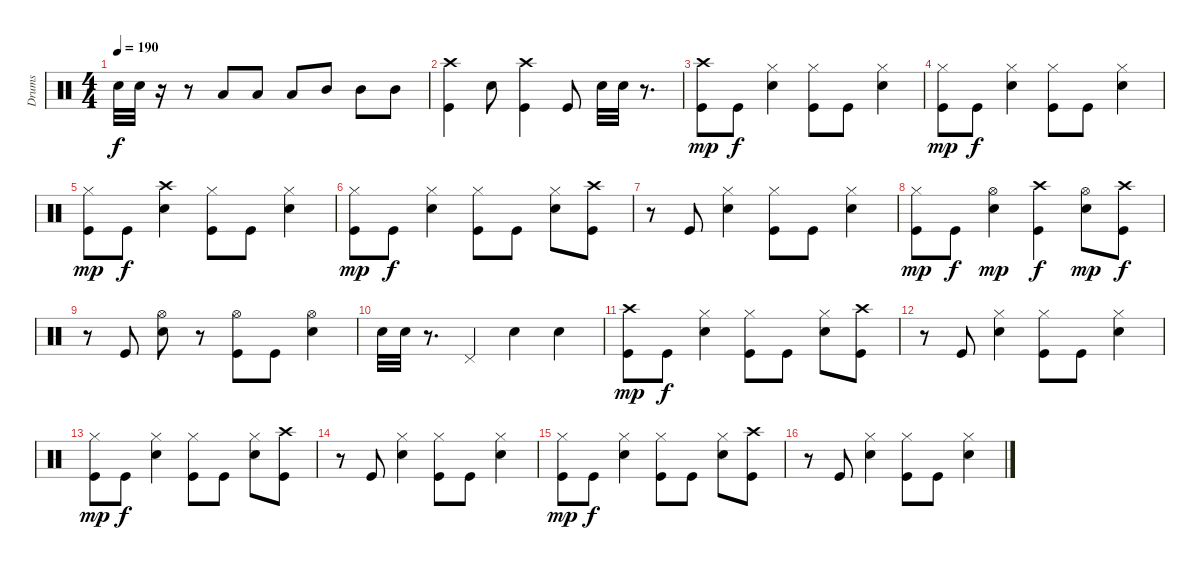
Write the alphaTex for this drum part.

\track ("Drums" "Drums") {instrument percussion}
\staff {score}
\articulation defaults
\ts (4 4)
\tempo 190
\clef neutral
\ks c "Snare (hit) 2".32{dy f} "Snare (hit) 2".32
r.16 r.8 "Low Tom (hit)".8 "Low Tom (hit)".8 "Low Tom (hit)".8 "Mid Tom (hit)".8 "Mid Tom (hit)".8 "Mid Tom (hit)".8 |
("Crash high (hit)" "Kick (hit)").4 "Snare (hit) 2".8 ("Crash high (hit)" "Kick (hit)").4 "Kick (hit)".8 "Snare (hit) 2".32 "Snare (hit) 2".32 r.8{d} |
("Crash high (hit)" "Kick (hit)").8{dy mp} "Kick (hit)".8{dy f} ("Hi-Hat (closed)" "Snare (hit) 2").4 ("Hi-Hat (closed)" "Kick (hit)").8 "Kick (hit)".8 ("Hi-Hat (closed)" "Snare (hit) 2").4 |
("Hi-Hat (closed)" "Kick (hit)").8{dy mp} "Kick (hit)".8{dy f} ("Hi-Hat (closed)" "Snare (hit) 2").4 ("Hi-Hat (closed)" "Kick (hit)").8 "Kick (hit)".8 ("Hi-Hat (closed)" "Snare (hit) 2").4 |
("Hi-Hat (closed)" "Kick (hit)").8{dy mp} "Kick (hit)".8{dy f} ("Crash high (hit)" "Snare (hit) 2").4 ("Hi-Hat (closed)" "Kick (hit)").8 "Kick (hit)".8 ("Hi-Hat (closed)" "Snare (hit) 2").4 |
("Hi-Hat (closed)" "Kick (hit)").8{dy mp} "Kick (hit)".8{dy f} ("Hi-Hat (closed)" "Snare (hit) 2").4 ("Hi-Hat (closed)" "Kick (hit)").8 "Kick (hit)".8 ("Hi-Hat (closed)" "Snare (hit) 2").8 ("Crash high (hit)" "Kick (hit)").8 |
r.8 "Kick (hit)".8 ("Hi-Hat (closed)" "Snare (hit) 2").4 ("Hi-Hat (closed)" "Kick (hit)").8 "Kick (hit)".8 ("Hi-Hat (closed)" "Snare (hit) 2").4 |
("Hi-Hat (closed)" "Kick (hit)").8{dy mp} "Kick (hit)".8{dy f} ("Hi-Hat (open)" "Snare (hit) 2").4{dy mp} ("Crash high (hit)" "Kick (hit)").4{dy f} ("Hi-Hat (open)" "Snare (hit) 2").8{dy mp} ("Crash high (hit)" "Kick (hit)").8{dy f} |
r.8 "Kick (hit)".8 ("Hi-Hat (open)" "Snare (hit) 2").8 r.8 ("Hi-Hat (open)" "Kick (hit)").8 "Kick (hit)".8 ("Hi-Hat (open)" "Snare (hit) 2").4 |
"Snare (hit) 2".32 "Snare (hit) 2".32 r.8{d} "Pedal Hi-Hat (hit)".4 "Snare (hit) 2".4 "Snare (hit) 2".4 |
("Crash high (hit)" "Kick (hit)").8{dy mp} "Kick (hit)".8{dy f} ("Hi-Hat (closed)" "Snare (hit) 2").4 ("Hi-Hat (closed)" "Kick (hit)").8 "Kick (hit)".8 ("Hi-Hat (closed)" "Snare (hit) 2").8 ("Crash high (hit)" "Kick (hit)").8 |
r.8 "Kick (hit)".8 ("Hi-Hat (closed)" "Snare (hit) 2").4 ("Hi-Hat (closed)" "Kick (hit)").8 "Kick (hit)".8 ("Hi-Hat (closed)" "Snare (hit) 2").4 |
("Hi-Hat (closed)" "Kick (hit)").8{dy mp} "Kick (hit)".8{dy f} ("Hi-Hat (closed)" "Snare (hit) 2").4 ("Hi-Hat (closed)" "Kick (hit)").8 "Kick (hit)".8 ("Hi-Hat (closed)" "Snare (hit) 2").8 ("Crash high (hit)" "Kick (hit)").8 |
r.8 "Kick (hit)".8 ("Hi-Hat (closed)" "Snare (hit) 2").4 ("Hi-Hat (closed)" "Kick (hit)").8 "Kick (hit)".8 ("Hi-Hat (closed)" "Snare (hit) 2").4 |
("Hi-Hat (closed)" "Kick (hit)").8{dy mp} "Kick (hit)".8{dy f} ("Hi-Hat (closed)" "Snare (hit) 2").4 ("Hi-Hat (closed)" "Kick (hit)").8 "Kick (hit)".8 ("Hi-Hat (closed)" "Snare (hit) 2").8 ("Crash high (hit)" "Kick (hit)").8 |
r.8 "Kick (hit)".8 ("Hi-Hat (closed)" "Snare (hit) 2").4 ("Hi-Hat (closed)" "Kick (hit)").8 "Kick (hit)".8 ("Hi-Hat (closed)" "Snare (hit) 2").4
